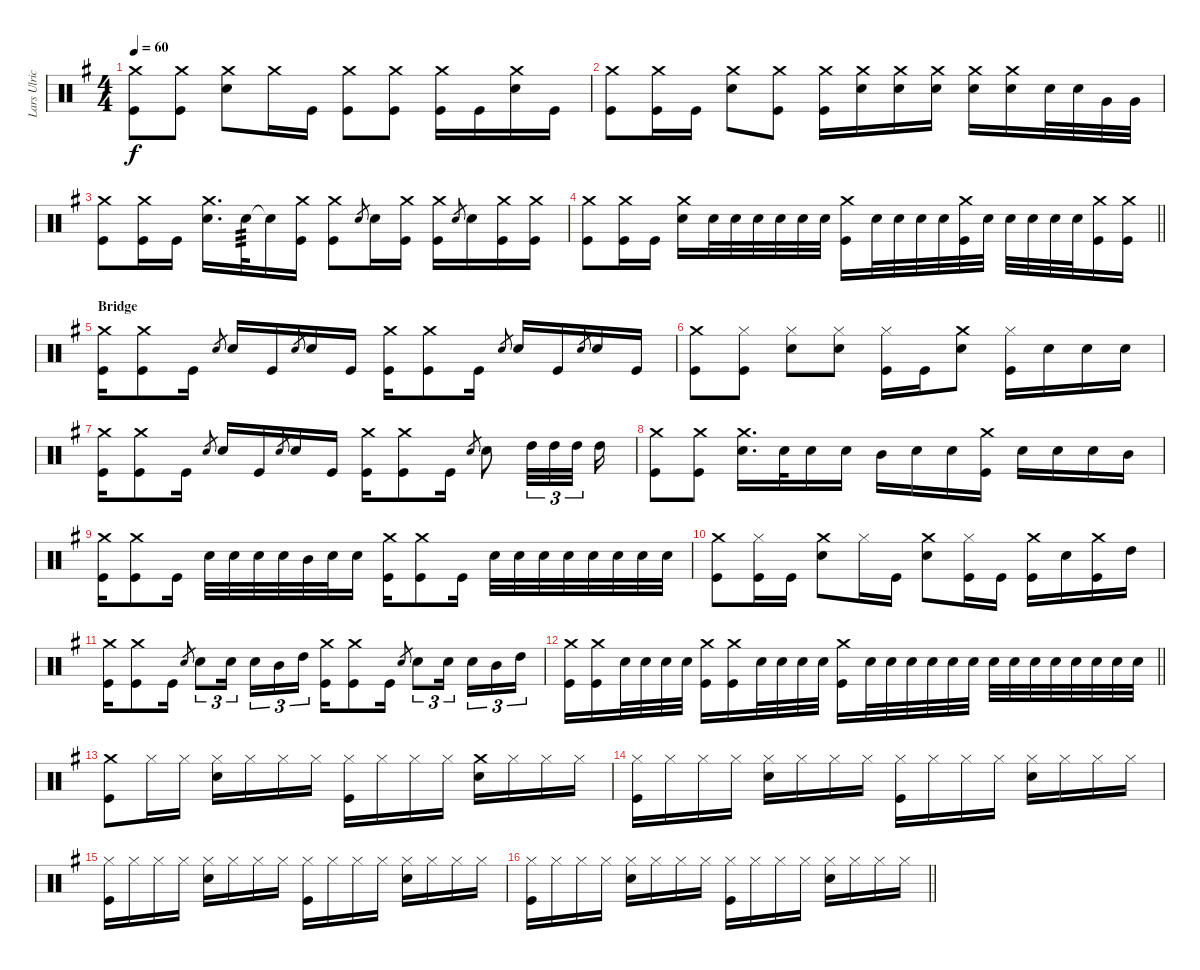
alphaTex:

\track ("Lars Ulrich [Drums]" "Lars Ulric") {instrument percussion}
\staff {score}
\articulation defaults
\ts (4 4)
\tempo 60
\clef neutral
\ks g
("Kick (hit)" "Crash medium (hit)").8{dy f} ("Kick (hit)" "Crash medium (hit)").8 ("Electric Snare (hit)" "Crash medium (hit)").8 "Crash medium (hit)".16 "Kick (hit)".16 ("Kick (hit)" "Crash medium (hit)").8 ("Kick (hit)" "Crash medium (hit)").8 ("Kick (hit)" "Crash medium (hit)").16 "Kick (hit)".16 ("Electric Snare (hit)" "Crash medium (hit)").16 "Kick (hit)".16 |
("Kick (hit)" "Crash medium (hit)").8 ("Kick (hit)" "Crash medium (hit)").16 "Kick (hit)".16 ("Electric Snare (hit)" "Crash medium (hit)").8 ("Kick (hit)" "Crash medium (hit)").8 ("Kick (hit)" "Crash medium (hit)").16 ("Electric Snare (hit)" "Crash medium (hit)").16 ("Electric Snare (hit)" "Crash medium (hit)").16 ("Electric Snare (hit)" "Crash medium (hit)").16 ("Electric Snare (hit)" "Crash medium (hit)").16 ("Electric Snare (hit)" "Crash medium (hit)").16 "Electric Snare (hit)".32 "Electric Snare (hit)".32 "Very Low Tom (hit)".32 "Very Low Tom (hit)".32 |
("Kick (hit)" "Crash medium (hit)").8 ("Kick (hit)" "Crash medium (hit)").16 "Kick (hit)".16 ("Electric Snare (hit)" "Crash medium (hit)").16{d} "Electric Snare (hit)".32{tp 3} "Snare (hit)"{t}.16 ("Kick (hit)" "Crash medium (hit)").16 ("Kick (hit)" "Crash medium (hit)").8 "Electric Snare (hit)".8{gr} "Electric Snare (hit)".16 ("Kick (hit)" "Crash medium (hit)").16 ("Kick (hit)" "Crash medium (hit)").16 "Electric Snare (hit)".8{gr} "Electric Snare (hit)".16 ("Kick (hit)" "Crash medium (hit)").16 ("Kick (hit)" "Crash medium (hit)").16 |
\barLineRight lightlight
("Kick (hit)" "Crash medium (hit)").8 ("Kick (hit)" "Crash medium (hit)").16 "Kick (hit)".16 ("Electric Snare (hit)" "Crash medium (hit)").16 "Electric Snare (hit)".32 "Electric Snare (hit)".32 "Electric Snare (hit)".32 "Electric Snare (hit)".32 "Electric Snare (hit)".32 "Electric Snare (hit)".32 ("Kick (hit)" "Crash medium (hit)").16 "Electric Snare (hit)".32 "Electric Snare (hit)".32 "Electric Snare (hit)".32 "Electric Snare (hit)".32 ("Kick (hit)" "Crash medium (hit)").32 "Electric Snare (hit)".32 "Electric Snare (hit)".32 "Electric Snare (hit)".32 "Electric Snare (hit)".32 "Electric Snare (hit)".32 ("Kick (hit)" "Crash medium (hit)").16 ("Kick (hit)" "Crash medium (hit)").16 |
\section ("" "Bridge")
("Kick (hit)" "Crash medium (hit)").16 ("Kick (hit)" "Crash medium (hit)").8 "Kick (hit)".16 "Electric Snare (hit)".8{gr} "Electric Snare (hit)".16 "Kick (hit)".16 "Electric Snare (hit)".8{gr} "Electric Snare (hit)".16 "Kick (hit)".16 ("Kick (hit)" "Crash medium (hit)").16 ("Kick (hit)" "Crash medium (hit)").8 "Kick (hit)".16 "Electric Snare (hit)".8{gr} "Electric Snare (hit)".16 "Kick (hit)".16 "Electric Snare (hit)".8{gr} "Electric Snare (hit)".16 "Kick (hit)".16 |
("Kick (hit)" "Crash medium (hit)").8 ("Kick (hit)" "Hi-Hat (closed)").8 ("Electric Snare (hit)" "Hi-Hat (closed)").8 ("Electric Snare (hit)" "Hi-Hat (closed)").8 ("Kick (hit)" "Hi-Hat (closed)").16 "Kick (hit)".16 ("Electric Snare (hit)" "Crash medium (hit)").8 ("Kick (hit)" "Hi-Hat (closed)").16 "Electric Snare (hit)".16 "Electric Snare (hit)".16 "Electric Snare (hit)".16 |
("Kick (hit)" "Crash medium (hit)").16 ("Kick (hit)" "Crash medium (hit)").8 "Kick (hit)".16 "Electric Snare (hit)".8{gr} "Electric Snare (hit)".16 "Kick (hit)".16 "Electric Snare (hit)".8{gr} "Electric Snare (hit)".16 "Kick (hit)".16 ("Kick (hit)" "Crash medium (hit)").16 ("Kick (hit)" "Crash medium (hit)").8 "Kick (hit)".16 "Electric Snare (hit)".8{gr} "Electric Snare (hit)".8 "High Tom (hit)".32{tu (3 2)} "High Tom (hit)".32{tu (3 2)} "High Tom (hit)".32{tu (3 2) beam splitsecondary} "High Tom (hit)".16 |
("Kick (hit)" "Crash medium (hit)").8 ("Kick (hit)" "Crash medium (hit)").8 ("Electric Snare (hit)" "Crash medium (hit)").16{d} "Electric Snare (hit)".32 "Electric Snare (hit)".16 "Electric Snare (hit)".16 "Mid Tom (hit)".16 "Electric Snare (hit)".16 "Electric Snare (hit)".16 ("Kick (hit)" "Crash medium (hit)").16 "Electric Snare (hit)".16 "Electric Snare (hit)".16 "Electric Snare (hit)".16 "Mid Tom (hit)".16 |
("Kick (hit)" "Crash medium (hit)").16 ("Kick (hit)" "Crash medium (hit)").8 "Kick (hit)".16 "Electric Snare (hit)".32 "Electric Snare (hit)".32 "Electric Snare (hit)".32 "Electric Snare (hit)".32 "Mid Tom (hit)".32 "Electric Snare (hit)".32 "Electric Snare (hit)".16 ("Kick (hit)" "Crash medium (hit)").16 ("Kick (hit)" "Crash medium (hit)").8 "Kick (hit)".16 "Electric Snare (hit)".32 "Electric Snare (hit)".32 "Electric Snare (hit)".32 "Electric Snare (hit)".32 "Electric Snare (hit)".32 "Electric Snare (hit)".32 "Electric Snare (hit)".32 "Electric Snare (hit)".32 |
("Kick (hit)" "Crash medium (hit)").8 ("Kick (hit)" "Hi-Hat (closed)").16 "Kick (hit)".16 ("Electric Snare (hit)" "Crash medium (hit)").8 "Hi-Hat (closed)".16 "Kick (hit)".16 ("Electric Snare (hit)" "Crash medium (hit)").8 ("Kick (hit)" "Hi-Hat (closed)").16 "Kick (hit)".16 ("Kick (hit)" "Crash medium (hit)").16 "Electric Snare (hit)".16 ("Kick (hit)" "Crash medium (hit)").16 "High Tom (hit)".16 |
("Kick (hit)" "Crash medium (hit)").16 ("Kick (hit)" "Crash medium (hit)").8 "Kick (hit)".16 "Electric Snare (hit)".8{gr} "Electric Snare (hit)".8{tu (3 2)} "Electric Snare (hit)".16{tu (3 2) beam splitsecondary} "Electric Snare (hit)".16{tu (3 2)} "Mid Tom (hit)".16{tu (3 2)} "High Tom (hit)".16{tu (3 2)} ("Kick (hit)" "Crash medium (hit)").16 ("Kick (hit)" "Crash medium (hit)").8 "Kick (hit)".16 "Electric Snare (hit)".8{gr} "Electric Snare (hit)".8{tu (3 2)} "Electric Snare (hit)".16{tu (3 2) beam splitsecondary} "Electric Snare (hit)".16{tu (3 2)} "Mid Tom (hit)".16{tu (3 2)} "High Tom (hit)".16{tu (3 2)} |
\barLineRight lightlight
("Kick (hit)" "Crash medium (hit)").16 ("Kick (hit)" "Crash medium (hit)").16 "Electric Snare (hit)".32 "Electric Snare (hit)".32 "Electric Snare (hit)".32 "Electric Snare (hit)".32 ("Kick (hit)" "Crash medium (hit)").16 ("Kick (hit)" "Crash medium (hit)").16 "Electric Snare (hit)".32 "Electric Snare (hit)".32 "Electric Snare (hit)".32 "Electric Snare (hit)".32 ("Kick (hit)" "Crash medium (hit)").16 "Electric Snare (hit)".32 "Electric Snare (hit)".32 "Electric Snare (hit)".32 "Electric Snare (hit)".32 "Electric Snare (hit)".32 "Electric Snare (hit)".32 "Electric Snare (hit)".32 "Electric Snare (hit)".32 "Electric Snare (hit)".32 "Electric Snare (hit)".32 "Electric Snare (hit)".32 "Electric Snare (hit)".32 "Electric Snare (hit)".32 "Electric Snare (hit)".32 |
\section ("" "")
("Kick (hit)" "Crash medium (hit)").8 "Hi-Hat (closed)".16 "Hi-Hat (closed)".16 ("Electric Snare (hit)" "Hi-Hat (closed)").16 "Hi-Hat (closed)".16 "Hi-Hat (closed)".16 "Hi-Hat (closed)".16 ("Kick (hit)" "Hi-Hat (closed)").16 "Hi-Hat (closed)".16 "Hi-Hat (closed)".16 "Hi-Hat (closed)".16 ("Electric Snare (hit)" "Crash medium (hit)").16 "Hi-Hat (closed)".16 "Hi-Hat (closed)".16 "Hi-Hat (closed)".16 |
("Kick (hit)" "Hi-Hat (closed)").16 "Hi-Hat (closed)".16 "Hi-Hat (closed)".16 "Hi-Hat (closed)".16 ("Electric Snare (hit)" "Hi-Hat (closed)").16 "Hi-Hat (closed)".16 "Hi-Hat (closed)".16 "Hi-Hat (closed)".16 ("Kick (hit)" "Hi-Hat (closed)").16 "Hi-Hat (closed)".16 "Hi-Hat (closed)".16 "Hi-Hat (closed)".16 ("Electric Snare (hit)" "Hi-Hat (closed)").16 "Hi-Hat (closed)".16 "Hi-Hat (closed)".16 "Hi-Hat (closed)".16 |
("Kick (hit)" "Hi-Hat (closed)").16 "Hi-Hat (closed)".16 "Hi-Hat (closed)".16 "Hi-Hat (closed)".16 ("Electric Snare (hit)" "Hi-Hat (closed)").16 "Hi-Hat (closed)".16 "Hi-Hat (closed)".16 "Hi-Hat (closed)".16 ("Kick (hit)" "Hi-Hat (closed)").16 "Hi-Hat (closed)".16 "Hi-Hat (closed)".16 "Hi-Hat (closed)".16 ("Electric Snare (hit)" "Hi-Hat (closed)").16 "Hi-Hat (closed)".16 "Hi-Hat (closed)".16 "Hi-Hat (closed)".16 |
\barLineRight lightlight
("Kick (hit)" "Hi-Hat (closed)").16 "Hi-Hat (closed)".16 "Hi-Hat (closed)".16 "Hi-Hat (closed)".16 ("Electric Snare (hit)" "Hi-Hat (closed)").16 "Hi-Hat (closed)".16 "Hi-Hat (closed)".16 "Hi-Hat (closed)".16 ("Kick (hit)" "Hi-Hat (closed)").16 "Hi-Hat (closed)".16 "Hi-Hat (closed)".16 "Hi-Hat (closed)".16 ("Electric Snare (hit)" "Hi-Hat (closed)").16 "Hi-Hat (closed)".16 "Hi-Hat (closed)".16 "Hi-Hat (closed)".16
